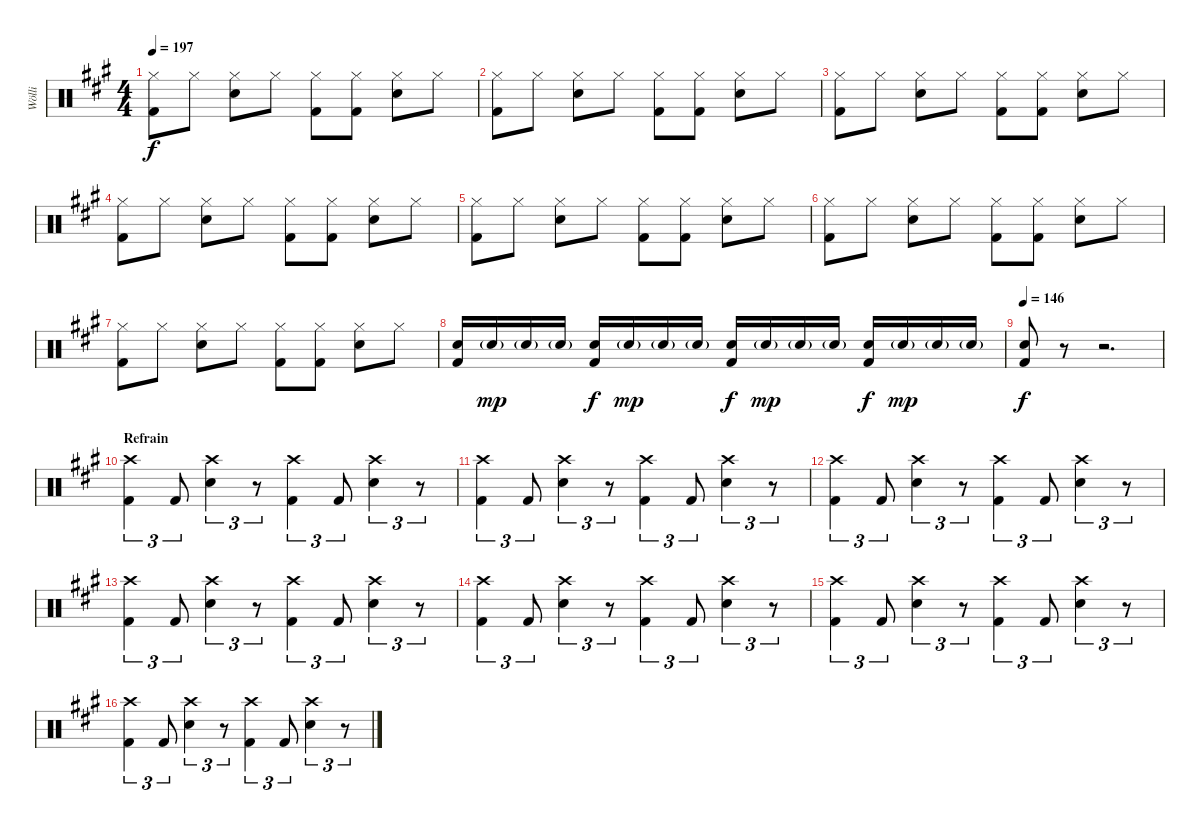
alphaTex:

\track ("Wölli" "Wölli") {instrument percussion}
\staff {score}
\articulation defaults
\ts (4 4)
\tempo 197
\clef neutral
\ks a
("Hi-Hat (closed)" "Kick (hit) 2").8{dy f} "Hi-Hat (closed)".8 ("Hi-Hat (closed)" "Snare (hit) 2").8 "Hi-Hat (closed)".8 ("Hi-Hat (closed)" "Kick (hit) 2").8 ("Hi-Hat (closed)" "Kick (hit) 2").8 ("Hi-Hat (closed)" "Snare (hit) 2").8 "Hi-Hat (closed)".8 |
("Hi-Hat (closed)" "Kick (hit) 2").8 "Hi-Hat (closed)".8 ("Hi-Hat (closed)" "Snare (hit) 2").8 "Hi-Hat (closed)".8 ("Hi-Hat (closed)" "Kick (hit) 2").8 ("Hi-Hat (closed)" "Kick (hit) 2").8 ("Hi-Hat (closed)" "Snare (hit) 2").8 "Hi-Hat (closed)".8 |
("Hi-Hat (closed)" "Kick (hit) 2").8 "Hi-Hat (closed)".8 ("Hi-Hat (closed)" "Snare (hit) 2").8 "Hi-Hat (closed)".8 ("Hi-Hat (closed)" "Kick (hit) 2").8 ("Hi-Hat (closed)" "Kick (hit) 2").8 ("Hi-Hat (closed)" "Snare (hit) 2").8 "Hi-Hat (closed)".8 |
("Hi-Hat (closed)" "Kick (hit) 2").8 "Hi-Hat (closed)".8 ("Hi-Hat (closed)" "Snare (hit) 2").8 "Hi-Hat (closed)".8 ("Hi-Hat (closed)" "Kick (hit) 2").8 ("Hi-Hat (closed)" "Kick (hit) 2").8 ("Hi-Hat (closed)" "Snare (hit) 2").8 "Hi-Hat (closed)".8 |
("Hi-Hat (closed)" "Kick (hit) 2").8 "Hi-Hat (closed)".8 ("Hi-Hat (closed)" "Snare (hit) 2").8 "Hi-Hat (closed)".8 ("Hi-Hat (closed)" "Kick (hit) 2").8 ("Hi-Hat (closed)" "Kick (hit) 2").8 ("Hi-Hat (closed)" "Snare (hit) 2").8 "Hi-Hat (closed)".8 |
("Hi-Hat (closed)" "Kick (hit) 2").8 "Hi-Hat (closed)".8 ("Hi-Hat (closed)" "Snare (hit) 2").8 "Hi-Hat (closed)".8 ("Hi-Hat (closed)" "Kick (hit) 2").8 ("Hi-Hat (closed)" "Kick (hit) 2").8 ("Hi-Hat (closed)" "Snare (hit) 2").8 "Hi-Hat (closed)".8 |
("Hi-Hat (closed)" "Kick (hit) 2").8 "Hi-Hat (closed)".8 ("Hi-Hat (closed)" "Snare (hit) 2").8 "Hi-Hat (closed)".8 ("Hi-Hat (closed)" "Kick (hit) 2").8 ("Hi-Hat (closed)" "Kick (hit) 2").8 ("Hi-Hat (closed)" "Snare (hit) 2").8 "Hi-Hat (closed)".8 |
("Snare (hit) 2" "Kick (hit) 2").16 "Snare (hit) 2"{g}.16{dy mp} "Snare (hit) 2"{g}.16 "Snare (hit) 2"{g}.16 ("Snare (hit) 2" "Kick (hit) 2").16{dy f} "Snare (hit) 2"{g}.16{dy mp} "Snare (hit) 2"{g}.16 "Snare (hit) 2"{g}.16 ("Snare (hit) 2" "Kick (hit) 2").16{dy f} "Snare (hit) 2"{g}.16{dy mp} "Snare (hit) 2"{g}.16 "Snare (hit) 2"{g}.16 ("Snare (hit) 2" "Kick (hit) 2").16{dy f} "Snare (hit) 2"{g}.16{dy mp} "Snare (hit) 2"{g}.16 "Snare (hit) 2"{g}.16 |
\tempo 146
("Snare (hit) 2" "Kick (hit) 2").8{dy f} r.8 r.2{d} |
\section ("" "Refrain")
("Crash high (hit)" "Kick (hit) 2").4{tu (3 2)} "Kick (hit) 2".8{tu (3 2)} ("Crash high (hit)" "Snare (hit) 2").4{tu (3 2)} r.8{tu (3 2)} ("Crash high (hit)" "Kick (hit) 2").4{tu (3 2)} "Kick (hit) 2".8{tu (3 2)} ("Crash high (hit)" "Snare (hit) 2").4{tu (3 2)} r.8{tu (3 2)} |
("Crash high (hit)" "Kick (hit) 2").4{tu (3 2)} "Kick (hit) 2".8{tu (3 2)} ("Crash high (hit)" "Snare (hit) 2").4{tu (3 2)} r.8{tu (3 2)} ("Crash high (hit)" "Kick (hit) 2").4{tu (3 2)} "Kick (hit) 2".8{tu (3 2)} ("Crash high (hit)" "Snare (hit) 2").4{tu (3 2)} r.8{tu (3 2)} |
("Crash high (hit)" "Kick (hit) 2").4{tu (3 2)} "Kick (hit) 2".8{tu (3 2)} ("Crash high (hit)" "Snare (hit) 2").4{tu (3 2)} r.8{tu (3 2)} ("Crash high (hit)" "Kick (hit) 2").4{tu (3 2)} "Kick (hit) 2".8{tu (3 2)} ("Crash high (hit)" "Snare (hit) 2").4{tu (3 2)} r.8{tu (3 2)} |
("Crash high (hit)" "Kick (hit) 2").4{tu (3 2)} "Kick (hit) 2".8{tu (3 2)} ("Crash high (hit)" "Snare (hit) 2").4{tu (3 2)} r.8{tu (3 2)} ("Crash high (hit)" "Kick (hit) 2").4{tu (3 2)} "Kick (hit) 2".8{tu (3 2)} ("Crash high (hit)" "Snare (hit) 2").4{tu (3 2)} r.8{tu (3 2)} |
("Crash high (hit)" "Kick (hit) 2").4{tu (3 2)} "Kick (hit) 2".8{tu (3 2)} ("Crash high (hit)" "Snare (hit) 2").4{tu (3 2)} r.8{tu (3 2)} ("Crash high (hit)" "Kick (hit) 2").4{tu (3 2)} "Kick (hit) 2".8{tu (3 2)} ("Crash high (hit)" "Snare (hit) 2").4{tu (3 2)} r.8{tu (3 2)} |
("Crash high (hit)" "Kick (hit) 2").4{tu (3 2)} "Kick (hit) 2".8{tu (3 2)} ("Crash high (hit)" "Snare (hit) 2").4{tu (3 2)} r.8{tu (3 2)} ("Crash high (hit)" "Kick (hit) 2").4{tu (3 2)} "Kick (hit) 2".8{tu (3 2)} ("Crash high (hit)" "Snare (hit) 2").4{tu (3 2)} r.8{tu (3 2)} |
("Crash high (hit)" "Kick (hit) 2").4{tu (3 2)} "Kick (hit) 2".8{tu (3 2)} ("Crash high (hit)" "Snare (hit) 2").4{tu (3 2)} r.8{tu (3 2)} ("Crash high (hit)" "Kick (hit) 2").4{tu (3 2)} "Kick (hit) 2".8{tu (3 2)} ("Crash high (hit)" "Snare (hit) 2").4{tu (3 2)} r.8{tu (3 2)}
